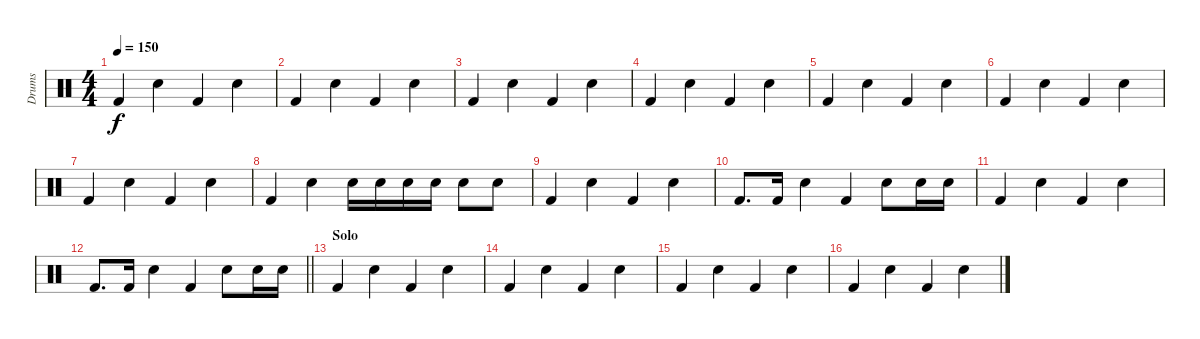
\track ("Drums" "Drums") {instrument percussion}
\staff {score}
\articulation defaults
\ts (4 4)
\tempo 150
\clef neutral
\ks c "Kick (hit) 2".4{dy f} "Electric Snare (hit)".4 "Kick (hit) 2".4 "Electric Snare (hit)".4
|
"Kick (hit) 2".4 "Electric Snare (hit)".4 "Kick (hit) 2".4 "Electric Snare (hit)".4 |
"Kick (hit) 2".4 "Electric Snare (hit)".4 "Kick (hit) 2".4 "Electric Snare (hit)".4 |
"Kick (hit) 2".4 "Electric Snare (hit)".4 "Kick (hit) 2".4 "Electric Snare (hit)".4 |
"Kick (hit) 2".4 "Electric Snare (hit)".4 "Kick (hit) 2".4 "Electric Snare (hit)".4 |
"Kick (hit) 2".4 "Electric Snare (hit)".4 "Kick (hit) 2".4 "Electric Snare (hit)".4 |
"Kick (hit) 2".4 "Electric Snare (hit)".4 "Kick (hit) 2".4 "Electric Snare (hit)".4 |
"Kick (hit) 2".4 "Electric Snare (hit)".4 "Electric Snare (hit)".16 "Electric Snare (hit)".16 "Electric Snare (hit)".16 "Electric Snare (hit)".16 "Electric Snare (hit)".8 "Electric Snare (hit)".8 |
"Kick (hit) 2".4 "Electric Snare (hit)".4 "Kick (hit) 2".4 "Electric Snare (hit)".4 |
"Kick (hit) 2".8{d} "Kick (hit) 2".16 "Electric Snare (hit)".4 "Kick (hit) 2".4 "Electric Snare (hit)".8 "Electric Snare (hit)".16 "Electric Snare (hit)".16 |
"Kick (hit) 2".4 "Electric Snare (hit)".4 "Kick (hit) 2".4 "Electric Snare (hit)".4 |
\barLineRight lightlight "Kick (hit) 2".8{d} "Kick (hit) 2".16 "Electric Snare (hit)".4 "Kick (hit) 2".4 "Electric Snare (hit)".8 "Electric Snare (hit)".16 "Electric Snare (hit)".16
|
\section ("" "Solo")
"Kick (hit) 2".4 "Electric Snare (hit)".4 "Kick (hit) 2".4 "Electric Snare (hit)".4 |
"Kick (hit) 2".4 "Electric Snare (hit)".4 "Kick (hit) 2".4 "Electric Snare (hit)".4 |
"Kick (hit) 2".4 "Electric Snare (hit)".4 "Kick (hit) 2".4 "Electric Snare (hit)".4 |
"Kick (hit) 2".4 "Electric Snare (hit)".4 "Kick (hit) 2".4 "Electric Snare (hit)".4
